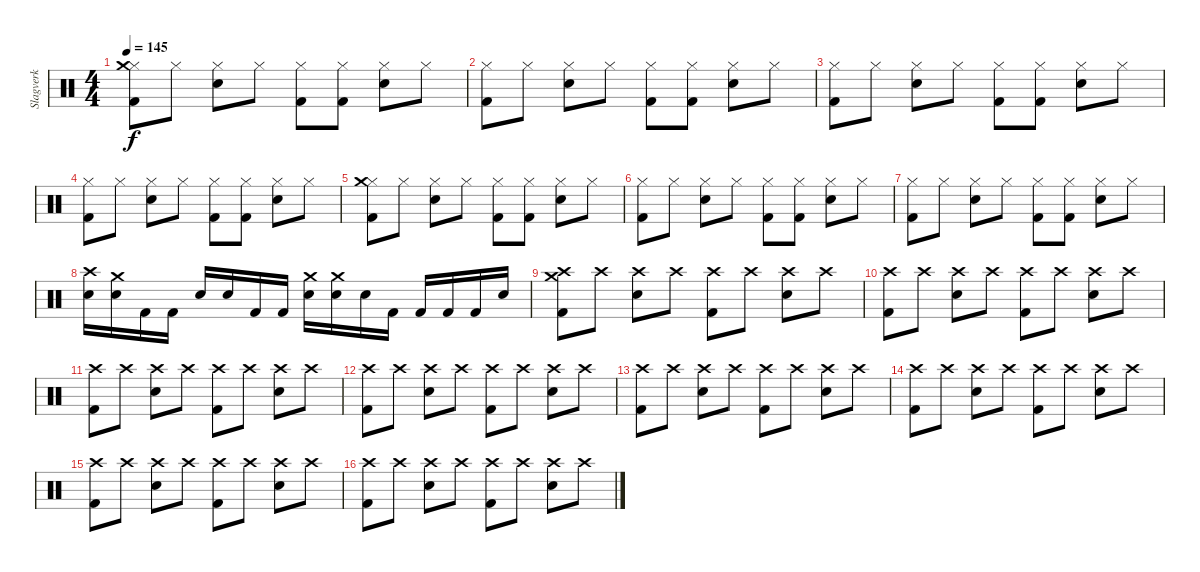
\track ("Slagverk" "Slagverk") {instrument percussion}
\staff {score}
\articulation defaults
\ts (4 4)
\tempo 145
\clef neutral
\ks c
("Hi-Hat (closed)" "Crash medium (hit)" "Kick (hit) 2").8{dy f} "Hi-Hat (closed)".8 ("Hi-Hat (closed)" "Snare (hit) 2").8 "Hi-Hat (closed)".8 ("Hi-Hat (closed)" "Kick (hit) 2").8 ("Hi-Hat (closed)" "Kick (hit) 2").8 ("Hi-Hat (closed)" "Snare (hit) 2").8 "Hi-Hat (closed)".8 |
("Hi-Hat (closed)" "Kick (hit) 2").8 "Hi-Hat (closed)".8 ("Hi-Hat (closed)" "Snare (hit) 2").8 "Hi-Hat (closed)".8 ("Hi-Hat (closed)" "Kick (hit) 2").8 ("Hi-Hat (closed)" "Kick (hit) 2").8 ("Hi-Hat (closed)" "Snare (hit) 2").8 "Hi-Hat (closed)".8 |
("Hi-Hat (closed)" "Kick (hit) 2").8 "Hi-Hat (closed)".8 ("Hi-Hat (closed)" "Snare (hit) 2").8 "Hi-Hat (closed)".8 ("Hi-Hat (closed)" "Kick (hit) 2").8 ("Hi-Hat (closed)" "Kick (hit) 2").8 ("Hi-Hat (closed)" "Snare (hit) 2").8 "Hi-Hat (closed)".8 |
("Hi-Hat (closed)" "Kick (hit) 2").8 "Hi-Hat (closed)".8 ("Hi-Hat (closed)" "Snare (hit) 2").8 "Hi-Hat (closed)".8 ("Hi-Hat (closed)" "Kick (hit) 2").8 ("Hi-Hat (closed)" "Kick (hit) 2").8 ("Hi-Hat (closed)" "Snare (hit) 2").8 "Hi-Hat (closed)".8 |
("Hi-Hat (closed)" "Crash medium (hit)" "Kick (hit) 2").8 "Hi-Hat (closed)".8 ("Hi-Hat (closed)" "Snare (hit) 2").8 "Hi-Hat (closed)".8 ("Hi-Hat (closed)" "Kick (hit) 2").8 ("Hi-Hat (closed)" "Kick (hit) 2").8 ("Hi-Hat (closed)" "Snare (hit) 2").8 "Hi-Hat (closed)".8 |
("Hi-Hat (closed)" "Kick (hit) 2").8 "Hi-Hat (closed)".8 ("Hi-Hat (closed)" "Snare (hit) 2").8 "Hi-Hat (closed)".8 ("Hi-Hat (closed)" "Kick (hit) 2").8 ("Hi-Hat (closed)" "Kick (hit) 2").8 ("Hi-Hat (closed)" "Snare (hit) 2").8 "Hi-Hat (closed)".8 |
("Hi-Hat (closed)" "Kick (hit) 2").8 "Hi-Hat (closed)".8 ("Hi-Hat (closed)" "Snare (hit) 2").8 "Hi-Hat (closed)".8 ("Hi-Hat (closed)" "Kick (hit) 2").8 ("Hi-Hat (closed)" "Kick (hit) 2").8 ("Hi-Hat (closed)" "Snare (hit) 2").8 "Hi-Hat (closed)".8 |
("Crash high (hit)" "Snare (hit) 2").16 ("Crash medium (hit)" "Snare (hit) 2").16 "Kick (hit) 2".16 "Kick (hit) 2".16 "Snare (hit) 2".16 "Snare (hit) 2".16 "Kick (hit) 2".16 "Kick (hit) 2".16 ("Crash medium (hit)" "Snare (hit) 2").16 ("Crash medium (hit)" "Snare (hit) 2").16 "Snare (hit) 2".16 "Kick (hit) 2".16 "Kick (hit) 2".16 "Kick (hit) 2".16 "Kick (hit) 2".16 "Snare (hit) 2".16 |
("Crash high (hit)" "Crash medium (hit)" "Kick (hit) 2").8 "Crash high (hit)".8 ("Crash high (hit)" "Snare (hit) 2").8 "Crash high (hit)".8 ("Crash high (hit)" "Kick (hit) 2").8 "Crash high (hit)".8 ("Crash high (hit)" "Snare (hit) 2").8 "Crash high (hit)".8 |
("Crash high (hit)" "Kick (hit) 2").8 "Crash high (hit)".8 ("Crash high (hit)" "Snare (hit) 2").8 "Crash high (hit)".8 ("Crash high (hit)" "Kick (hit) 2").8 "Crash high (hit)".8 ("Crash high (hit)" "Snare (hit) 2").8 "Crash high (hit)".8 |
("Crash high (hit)" "Kick (hit) 2").8 "Crash high (hit)".8 ("Crash high (hit)" "Snare (hit) 2").8 "Crash high (hit)".8 ("Crash high (hit)" "Kick (hit) 2").8 "Crash high (hit)".8 ("Crash high (hit)" "Snare (hit) 2").8 "Crash high (hit)".8 |
("Crash high (hit)" "Kick (hit) 2").8 "Crash high (hit)".8 ("Crash high (hit)" "Snare (hit) 2").8 "Crash high (hit)".8 ("Crash high (hit)" "Kick (hit) 2").8 "Crash high (hit)".8 ("Crash high (hit)" "Snare (hit) 2").8 "Crash high (hit)".8 |
("Crash high (hit)" "Kick (hit) 2").8 "Crash high (hit)".8 ("Crash high (hit)" "Snare (hit) 2").8 "Crash high (hit)".8 ("Crash high (hit)" "Kick (hit) 2").8 "Crash high (hit)".8 ("Crash high (hit)" "Snare (hit) 2").8 "Crash high (hit)".8 |
("Crash high (hit)" "Kick (hit) 2").8 "Crash high (hit)".8 ("Crash high (hit)" "Snare (hit) 2").8 "Crash high (hit)".8 ("Crash high (hit)" "Kick (hit) 2").8 "Crash high (hit)".8 ("Crash high (hit)" "Snare (hit) 2").8 "Crash high (hit)".8 |
("Crash high (hit)" "Kick (hit) 2").8 "Crash high (hit)".8 ("Crash high (hit)" "Snare (hit) 2").8 "Crash high (hit)".8 ("Crash high (hit)" "Kick (hit) 2").8 "Crash high (hit)".8 ("Crash high (hit)" "Snare (hit) 2").8 "Crash high (hit)".8 |
("Crash high (hit)" "Kick (hit) 2").8 "Crash high (hit)".8 ("Crash high (hit)" "Snare (hit) 2").8 "Crash high (hit)".8 ("Crash high (hit)" "Kick (hit) 2").8 "Crash high (hit)".8 ("Crash high (hit)" "Snare (hit) 2").8 "Crash high (hit)".8
